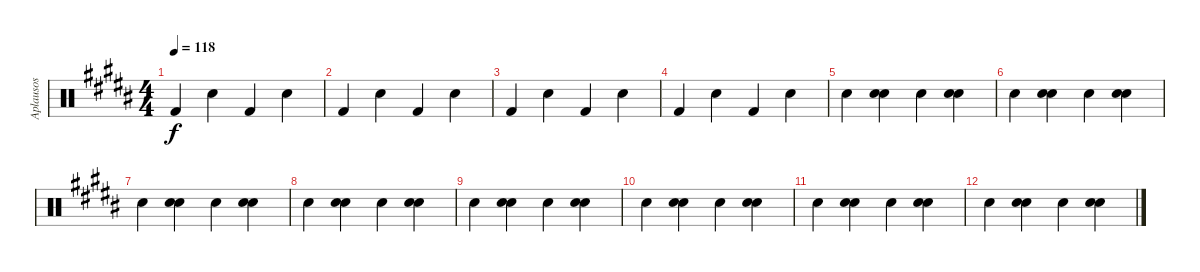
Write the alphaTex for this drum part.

\track ("Aplausos" "Aplausos") {instrument percussion}
\staff {score}
\articulation defaults
\ts (4 4)
\tempo 118
\clef neutral
\ks b "Kick (hit) 2".4{dy f} "Hand Clap (hit)".4 "Kick (hit) 2".4 "Hand Clap (hit)".4
|
"Kick (hit) 2".4 "Hand Clap (hit)".4 "Kick (hit) 2".4 "Hand Clap (hit)".4 |
"Kick (hit) 2".4 "Hand Clap (hit)".4 "Kick (hit) 2".4 "Hand Clap (hit)".4 |
"Kick (hit) 2".4 "Hand Clap (hit)".4 "Kick (hit) 2".4 "Hand Clap (hit)".4 |
"Hand Clap (hit)".4 ("Hand Clap (hit)" "Hand Clap (hit)").4 "Hand Clap (hit)".4 ("Hand Clap (hit)" "Hand Clap (hit)").4 |
"Hand Clap (hit)".4 ("Hand Clap (hit)" "Hand Clap (hit)").4 "Hand Clap (hit)".4 ("Hand Clap (hit)" "Hand Clap (hit)").4 |
"Hand Clap (hit)".4 ("Hand Clap (hit)" "Hand Clap (hit)").4 "Hand Clap (hit)".4 ("Hand Clap (hit)" "Hand Clap (hit)").4 |
"Hand Clap (hit)".4 ("Hand Clap (hit)" "Hand Clap (hit)").4 "Hand Clap (hit)".4 ("Hand Clap (hit)" "Hand Clap (hit)").4 |
"Hand Clap (hit)".4 ("Hand Clap (hit)" "Hand Clap (hit)").4 "Hand Clap (hit)".4 ("Hand Clap (hit)" "Hand Clap (hit)").4 |
"Hand Clap (hit)".4 ("Hand Clap (hit)" "Hand Clap (hit)").4 "Hand Clap (hit)".4 ("Hand Clap (hit)" "Hand Clap (hit)").4 |
"Hand Clap (hit)".4 ("Hand Clap (hit)" "Hand Clap (hit)").4 "Hand Clap (hit)".4 ("Hand Clap (hit)" "Hand Clap (hit)").4 |
"Hand Clap (hit)".4 ("Hand Clap (hit)" "Hand Clap (hit)").4 "Hand Clap (hit)".4 ("Hand Clap (hit)" "Hand Clap (hit)").4
